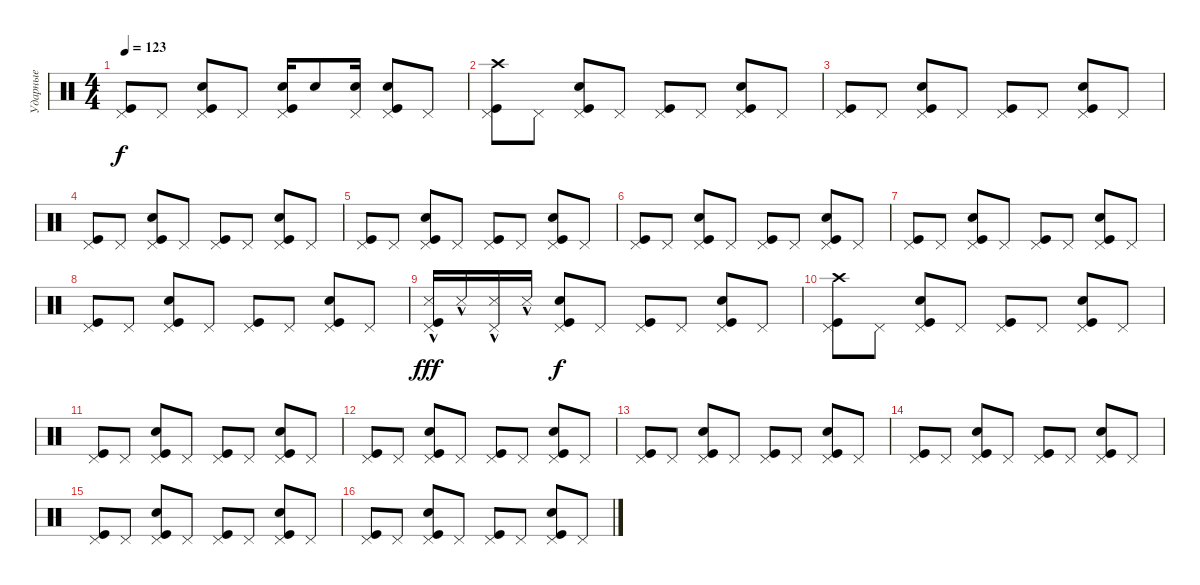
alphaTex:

\track ("Ударные" "Ударные") {instrument percussion}
\staff {score}
\articulation defaults
\ts (4 4)
\tempo 123
\clef neutral
\ks c
("Pedal Hi-Hat (hit)" "Kick (hit)").8{dy f} "Pedal Hi-Hat (hit)".8 ("Pedal Hi-Hat (hit)" "Kick (hit)" "Snare (hit) 2").8 "Pedal Hi-Hat (hit)".8 ("Pedal Hi-Hat (hit)" "Kick (hit)" "Snare (hit) 2").16 "Snare (hit) 2".8 ("Snare (hit) 2" "Pedal Hi-Hat (hit)").16 ("Snare (hit) 2" "Kick (hit)" "Pedal Hi-Hat (hit)").8 "Pedal Hi-Hat (hit)".8 |
("Pedal Hi-Hat (hit)" "Kick (hit)" "Crash high (hit)").8 "Pedal Hi-Hat (hit)".8 ("Pedal Hi-Hat (hit)" "Kick (hit)" "Snare (hit) 2").8 "Pedal Hi-Hat (hit)".8 ("Pedal Hi-Hat (hit)" "Kick (hit)").8 "Pedal Hi-Hat (hit)".8 ("Pedal Hi-Hat (hit)" "Kick (hit)" "Snare (hit) 2").8 "Pedal Hi-Hat (hit)".8 |
("Pedal Hi-Hat (hit)" "Kick (hit)").8 "Pedal Hi-Hat (hit)".8 ("Pedal Hi-Hat (hit)" "Kick (hit)" "Snare (hit) 2").8 "Pedal Hi-Hat (hit)".8 ("Pedal Hi-Hat (hit)" "Kick (hit)").8 "Pedal Hi-Hat (hit)".8 ("Pedal Hi-Hat (hit)" "Kick (hit)" "Snare (hit) 2").8 "Pedal Hi-Hat (hit)".8 |
("Pedal Hi-Hat (hit)" "Kick (hit)").8 "Pedal Hi-Hat (hit)".8 ("Pedal Hi-Hat (hit)" "Kick (hit)" "Snare (hit) 2").8 "Pedal Hi-Hat (hit)".8 ("Pedal Hi-Hat (hit)" "Kick (hit)").8 "Pedal Hi-Hat (hit)".8 ("Pedal Hi-Hat (hit)" "Kick (hit)" "Snare (hit) 2").8 "Pedal Hi-Hat (hit)".8 |
("Pedal Hi-Hat (hit)" "Kick (hit)").8 "Pedal Hi-Hat (hit)".8 ("Pedal Hi-Hat (hit)" "Kick (hit)" "Snare (hit) 2").8 "Pedal Hi-Hat (hit)".8 ("Pedal Hi-Hat (hit)" "Kick (hit)").8 "Pedal Hi-Hat (hit)".8 ("Pedal Hi-Hat (hit)" "Kick (hit)" "Snare (hit) 2").8 "Pedal Hi-Hat (hit)".8 |
("Pedal Hi-Hat (hit)" "Kick (hit)").8 "Pedal Hi-Hat (hit)".8 ("Pedal Hi-Hat (hit)" "Kick (hit)" "Snare (hit) 2").8 "Pedal Hi-Hat (hit)".8 ("Pedal Hi-Hat (hit)" "Kick (hit)").8 "Pedal Hi-Hat (hit)".8 ("Pedal Hi-Hat (hit)" "Kick (hit)" "Snare (hit) 2").8 "Pedal Hi-Hat (hit)".8 |
("Pedal Hi-Hat (hit)" "Kick (hit)").8 "Pedal Hi-Hat (hit)".8 ("Pedal Hi-Hat (hit)" "Kick (hit)" "Snare (hit) 2").8 "Pedal Hi-Hat (hit)".8 ("Pedal Hi-Hat (hit)" "Kick (hit)").8 "Pedal Hi-Hat (hit)".8 ("Pedal Hi-Hat (hit)" "Kick (hit)" "Snare (hit) 2").8 "Pedal Hi-Hat (hit)".8 |
("Pedal Hi-Hat (hit)" "Kick (hit)").8 "Pedal Hi-Hat (hit)".8 ("Pedal Hi-Hat (hit)" "Kick (hit)" "Snare (hit) 2").8 "Pedal Hi-Hat (hit)".8 ("Pedal Hi-Hat (hit)" "Kick (hit)").8 "Pedal Hi-Hat (hit)".8 ("Pedal Hi-Hat (hit)" "Kick (hit)" "Snare (hit) 2").8 "Pedal Hi-Hat (hit)".8 |
("Snare (side stick) 3"{hac} "Pedal Hi-Hat (hit)" "Kick (hit)").16{dy fff} "Snare (side stick) 3"{hac}.16 ("Snare (side stick) 3"{hac} "Pedal Hi-Hat (hit)").16 "Snare (side stick) 3"{hac}.16 ("Pedal Hi-Hat (hit)" "Snare (hit) 2" "Kick (hit)").8{dy f} "Pedal Hi-Hat (hit)".8 ("Pedal Hi-Hat (hit)" "Kick (hit)").8 "Pedal Hi-Hat (hit)".8 ("Pedal Hi-Hat (hit)" "Kick (hit)" "Snare (hit) 2").8 "Pedal Hi-Hat (hit)".8 |
("Pedal Hi-Hat (hit)" "Kick (hit)" "Crash high (hit)").8 "Pedal Hi-Hat (hit)".8 ("Pedal Hi-Hat (hit)" "Kick (hit)" "Snare (hit) 2").8 "Pedal Hi-Hat (hit)".8 ("Pedal Hi-Hat (hit)" "Kick (hit)").8 "Pedal Hi-Hat (hit)".8 ("Pedal Hi-Hat (hit)" "Kick (hit)" "Snare (hit) 2").8 "Pedal Hi-Hat (hit)".8 |
("Pedal Hi-Hat (hit)" "Kick (hit)").8 "Pedal Hi-Hat (hit)".8 ("Pedal Hi-Hat (hit)" "Kick (hit)" "Snare (hit) 2").8 "Pedal Hi-Hat (hit)".8 ("Pedal Hi-Hat (hit)" "Kick (hit)").8 "Pedal Hi-Hat (hit)".8 ("Pedal Hi-Hat (hit)" "Kick (hit)" "Snare (hit) 2").8 "Pedal Hi-Hat (hit)".8 |
("Pedal Hi-Hat (hit)" "Kick (hit)").8 "Pedal Hi-Hat (hit)".8 ("Pedal Hi-Hat (hit)" "Kick (hit)" "Snare (hit) 2").8 "Pedal Hi-Hat (hit)".8 ("Pedal Hi-Hat (hit)" "Kick (hit)").8 "Pedal Hi-Hat (hit)".8 ("Pedal Hi-Hat (hit)" "Kick (hit)" "Snare (hit) 2").8 "Pedal Hi-Hat (hit)".8 |
("Pedal Hi-Hat (hit)" "Kick (hit)").8 "Pedal Hi-Hat (hit)".8 ("Pedal Hi-Hat (hit)" "Kick (hit)" "Snare (hit) 2").8 "Pedal Hi-Hat (hit)".8 ("Pedal Hi-Hat (hit)" "Kick (hit)").8 "Pedal Hi-Hat (hit)".8 ("Pedal Hi-Hat (hit)" "Kick (hit)" "Snare (hit) 2").8 "Pedal Hi-Hat (hit)".8 |
("Pedal Hi-Hat (hit)" "Kick (hit)").8 "Pedal Hi-Hat (hit)".8 ("Pedal Hi-Hat (hit)" "Kick (hit)" "Snare (hit) 2").8 "Pedal Hi-Hat (hit)".8 ("Pedal Hi-Hat (hit)" "Kick (hit)").8 "Pedal Hi-Hat (hit)".8 ("Pedal Hi-Hat (hit)" "Kick (hit)" "Snare (hit) 2").8 "Pedal Hi-Hat (hit)".8 |
("Pedal Hi-Hat (hit)" "Kick (hit)").8 "Pedal Hi-Hat (hit)".8 ("Pedal Hi-Hat (hit)" "Kick (hit)" "Snare (hit) 2").8 "Pedal Hi-Hat (hit)".8 ("Pedal Hi-Hat (hit)" "Kick (hit)").8 "Pedal Hi-Hat (hit)".8 ("Pedal Hi-Hat (hit)" "Kick (hit)" "Snare (hit) 2").8 "Pedal Hi-Hat (hit)".8 |
("Pedal Hi-Hat (hit)" "Kick (hit)").8 "Pedal Hi-Hat (hit)".8 ("Pedal Hi-Hat (hit)" "Kick (hit)" "Snare (hit) 2").8 "Pedal Hi-Hat (hit)".8 ("Pedal Hi-Hat (hit)" "Kick (hit)").8 "Pedal Hi-Hat (hit)".8 ("Pedal Hi-Hat (hit)" "Kick (hit)" "Snare (hit) 2").8 "Pedal Hi-Hat (hit)".8
